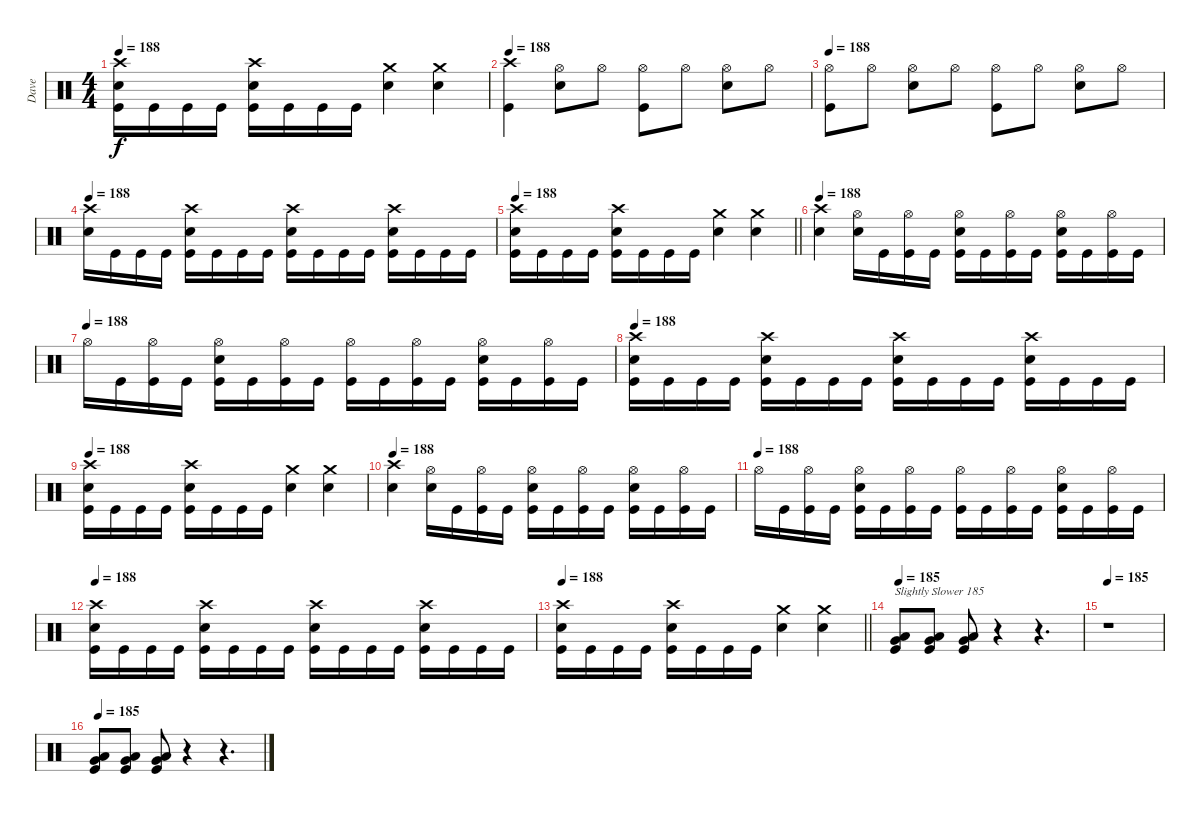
\track ("Dave" "Dave") {instrument percussion}
\staff {score}
\articulation defaults
\ts (4 4)
\tempo 188
\clef neutral
\ks c
("Crash high (hit)" "Snare (hit) 2" "Kick (hit)").16{dy f} "Kick (hit)".16 "Kick (hit)".16 "Kick (hit)".16 ("Crash high (hit)" "Snare (hit) 2" "Kick (hit)").16 "Kick (hit)".16 "Kick (hit)".16 "Kick (hit)".16 ("Crash medium (hit)" "Snare (hit) 2").4 ("Crash medium (hit)" "Snare (hit) 2").4 |
\tempo 188
("Crash high (hit)" "Kick (hit)").4 ("Hi-Hat (open)" "Snare (hit) 2").8 "Hi-Hat (open)".8 ("Hi-Hat (open)" "Kick (hit)").8 "Hi-Hat (open)".8 ("Hi-Hat (open)" "Snare (hit) 2").8 "Hi-Hat (open)".8 |
\tempo 188
("Hi-Hat (open)" "Kick (hit)").8 "Hi-Hat (open)".8 ("Hi-Hat (open)" "Snare (hit) 2").8 "Hi-Hat (open)".8 ("Hi-Hat (open)" "Kick (hit)").8 "Hi-Hat (open)".8 ("Hi-Hat (open)" "Snare (hit) 2").8 "Hi-Hat (open)".8 |
\tempo 188
("Crash high (hit)" "Snare (hit) 2").16 "Kick (hit)".16 "Kick (hit)".16 "Kick (hit)".16 ("Crash high (hit)" "Snare (hit) 2" "Kick (hit)").16 "Kick (hit)".16 "Kick (hit)".16 "Kick (hit)".16 ("Crash high (hit)" "Snare (hit) 2" "Kick (hit)").16 "Kick (hit)".16 "Kick (hit)".16 "Kick (hit)".16 ("Crash high (hit)" "Snare (hit) 2" "Kick (hit)").16 "Kick (hit)".16 "Kick (hit)".16 "Kick (hit)".16 |
\tempo 188
\barLineRight lightlight
("Crash high (hit)" "Snare (hit) 2" "Kick (hit)").16 "Kick (hit)".16 "Kick (hit)".16 "Kick (hit)".16 ("Crash high (hit)" "Snare (hit) 2" "Kick (hit)").16 "Kick (hit)".16 "Kick (hit)".16 "Kick (hit)".16 ("Crash medium (hit)" "Snare (hit) 2").4 ("Crash medium (hit)" "Snare (hit) 2").4 |
\tempo 188
("Crash high (hit)" "Snare (hit) 2").4 ("Hi-Hat (open)" "Snare (hit) 2").16 "Kick (hit)".16 ("Hi-Hat (open)" "Kick (hit)").16 "Kick (hit)".16 ("Hi-Hat (open)" "Snare (hit) 2" "Kick (hit)").16 "Kick (hit)".16 ("Hi-Hat (open)" "Kick (hit)").16 "Kick (hit)".16 ("Hi-Hat (open)" "Snare (hit) 2" "Kick (hit)").16 "Kick (hit)".16 ("Hi-Hat (open)" "Kick (hit)").16 "Kick (hit)".16 |
\tempo (188)
"Hi-Hat (open)".16 "Kick (hit)".16 ("Hi-Hat (open)" "Kick (hit)").16 "Kick (hit)".16 ("Hi-Hat (open)" "Snare (hit) 2" "Kick (hit)").16 "Kick (hit)".16 ("Hi-Hat (open)" "Kick (hit)").16 "Kick (hit)".16 ("Hi-Hat (open)" "Kick (hit)").16 "Kick (hit)".16 ("Hi-Hat (open)" "Kick (hit)").16 "Kick (hit)".16 ("Hi-Hat (open)" "Snare (hit) 2" "Kick (hit)").16 "Kick (hit)".16 ("Hi-Hat (open)" "Kick (hit)").16 "Kick (hit)".16 |
\tempo 188
("Crash high (hit)" "Snare (hit) 2" "Kick (hit)").16 "Kick (hit)".16 "Kick (hit)".16 "Kick (hit)".16 ("Crash high (hit)" "Snare (hit) 2" "Kick (hit)").16 "Kick (hit)".16 "Kick (hit)".16 "Kick (hit)".16 ("Crash high (hit)" "Snare (hit) 2" "Kick (hit)").16 "Kick (hit)".16 "Kick (hit)".16 "Kick (hit)".16 ("Crash high (hit)" "Snare (hit) 2" "Kick (hit)").16 "Kick (hit)".16 "Kick (hit)".16 "Kick (hit)".16 |
\tempo 188
("Crash high (hit)" "Snare (hit) 2" "Kick (hit)").16 "Kick (hit)".16 "Kick (hit)".16 "Kick (hit)".16 ("Crash high (hit)" "Snare (hit) 2" "Kick (hit)").16 "Kick (hit)".16 "Kick (hit)".16 "Kick (hit)".16 ("Crash medium (hit)" "Snare (hit) 2").4 ("Crash medium (hit)" "Snare (hit) 2").4 |
\tempo 188
("Crash high (hit)" "Snare (hit) 2").4 ("Hi-Hat (open)" "Snare (hit) 2").16 "Kick (hit)".16 ("Hi-Hat (open)" "Kick (hit)").16 "Kick (hit)".16 ("Hi-Hat (open)" "Snare (hit) 2" "Kick (hit)").16 "Kick (hit)".16 ("Hi-Hat (open)" "Kick (hit)").16 "Kick (hit)".16 ("Hi-Hat (open)" "Snare (hit) 2" "Kick (hit)").16 "Kick (hit)".16 ("Hi-Hat (open)" "Kick (hit)").16 "Kick (hit)".16 |
\tempo (188)
"Hi-Hat (open)".16 "Kick (hit)".16 ("Hi-Hat (open)" "Kick (hit)").16 "Kick (hit)".16 ("Hi-Hat (open)" "Snare (hit) 2" "Kick (hit)").16 "Kick (hit)".16 ("Hi-Hat (open)" "Kick (hit)").16 "Kick (hit)".16 ("Hi-Hat (open)" "Kick (hit)").16 "Kick (hit)".16 ("Hi-Hat (open)" "Kick (hit)").16 "Kick (hit)".16 ("Hi-Hat (open)" "Snare (hit) 2" "Kick (hit)").16 "Kick (hit)".16 ("Hi-Hat (open)" "Kick (hit)").16 "Kick (hit)".16 |
\tempo 188
("Crash high (hit)" "Snare (hit) 2" "Kick (hit)").16 "Kick (hit)".16 "Kick (hit)".16 "Kick (hit)".16 ("Crash high (hit)" "Snare (hit) 2" "Kick (hit)").16 "Kick (hit)".16 "Kick (hit)".16 "Kick (hit)".16 ("Crash high (hit)" "Snare (hit) 2" "Kick (hit)").16 "Kick (hit)".16 "Kick (hit)".16 "Kick (hit)".16 ("Crash high (hit)" "Snare (hit) 2" "Kick (hit)").16 "Kick (hit)".16 "Kick (hit)".16 "Kick (hit)".16 |
\tempo 188
\barLineRight lightlight
("Crash high (hit)" "Snare (hit) 2" "Kick (hit)").16 "Kick (hit)".16 "Kick (hit)".16 "Kick (hit)".16 ("Crash high (hit)" "Snare (hit) 2" "Kick (hit)").16 "Kick (hit)".16 "Kick (hit)".16 "Kick (hit)".16 ("Crash medium (hit)" "Snare (hit) 2").4 ("Crash medium (hit)" "Snare (hit) 2").4 |
\tempo 185
("Very Low Tom (hit)" "Low Floor Tom (hit)" "Kick (hit)").8{txt "Slightly Slower 185"} ("Very Low Tom (hit)" "Low Floor Tom (hit)" "Kick (hit)").8 ("Very Low Tom (hit)" "Low Floor Tom (hit)" "Kick (hit)").8 r.4 r.4{d} |
\tempo 185
r.1 |
\tempo 185
("Very Low Tom (hit)" "Low Floor Tom (hit)" "Kick (hit)").8 ("Very Low Tom (hit)" "Low Floor Tom (hit)" "Kick (hit)").8 ("Very Low Tom (hit)" "Low Floor Tom (hit)" "Kick (hit)").8 r.4 r.4{d}
